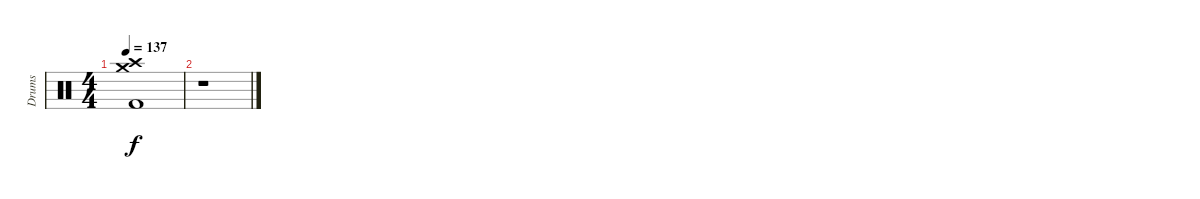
\track ("Drums" "Drums") {instrument percussion}
\staff {score}
\articulation defaults
\ts (4 4)
\tempo 137
\clef neutral
\ks c
("Crash medium (hit)" "Crash high (hit)" "Kick (hit) 2").1{dy f} |
r.1
